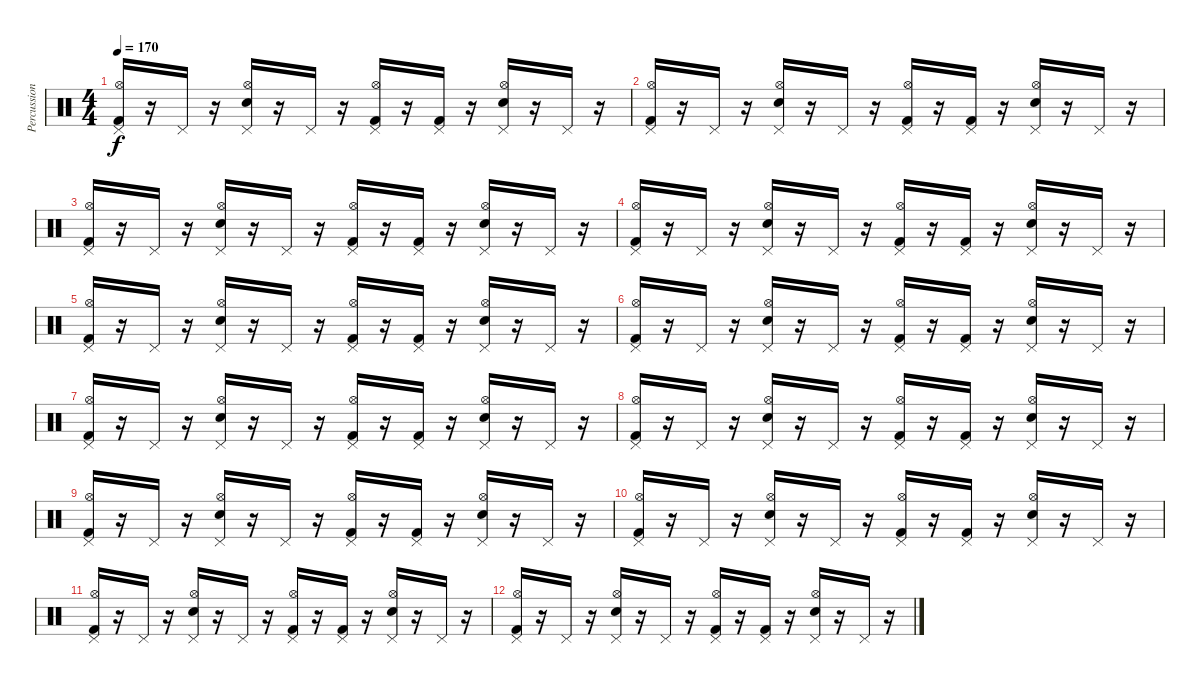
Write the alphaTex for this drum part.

\track ("Percussion" "Percussion") {instrument percussion}
\staff {score}
\articulation defaults
\ts (4 4)
\tempo 170
\clef neutral
\ks c
("Pedal Hi-Hat (hit)" "Hi-Hat (open)" "Kick (hit) 2").16{dy f} r.16 "Pedal Hi-Hat (hit)".16 r.16 ("Pedal Hi-Hat (hit)" "Hi-Hat (open)" "Snare (hit) 2").16 r.16 "Pedal Hi-Hat (hit)".16 r.16 ("Pedal Hi-Hat (hit)" "Hi-Hat (open)" "Kick (hit) 2").16 r.16 ("Pedal Hi-Hat (hit)" "Kick (hit) 2").16 r.16 ("Pedal Hi-Hat (hit)" "Hi-Hat (open)" "Snare (hit) 2").16 r.16 "Pedal Hi-Hat (hit)".16 r.16 |
("Pedal Hi-Hat (hit)" "Hi-Hat (open)" "Kick (hit) 2").16 r.16 "Pedal Hi-Hat (hit)".16 r.16 ("Pedal Hi-Hat (hit)" "Hi-Hat (open)" "Snare (hit) 2").16 r.16 "Pedal Hi-Hat (hit)".16 r.16 ("Pedal Hi-Hat (hit)" "Hi-Hat (open)" "Kick (hit) 2").16 r.16 ("Pedal Hi-Hat (hit)" "Kick (hit) 2").16 r.16 ("Pedal Hi-Hat (hit)" "Hi-Hat (open)" "Snare (hit) 2").16 r.16 "Pedal Hi-Hat (hit)".16 r.16 |
("Pedal Hi-Hat (hit)" "Hi-Hat (open)" "Kick (hit) 2").16 r.16 "Pedal Hi-Hat (hit)".16 r.16 ("Pedal Hi-Hat (hit)" "Hi-Hat (open)" "Snare (hit) 2").16 r.16 "Pedal Hi-Hat (hit)".16 r.16 ("Pedal Hi-Hat (hit)" "Hi-Hat (open)" "Kick (hit) 2").16 r.16 ("Pedal Hi-Hat (hit)" "Kick (hit) 2").16 r.16 ("Pedal Hi-Hat (hit)" "Hi-Hat (open)" "Snare (hit) 2").16 r.16 "Pedal Hi-Hat (hit)".16 r.16 |
("Pedal Hi-Hat (hit)" "Hi-Hat (open)" "Kick (hit) 2").16 r.16 "Pedal Hi-Hat (hit)".16 r.16 ("Pedal Hi-Hat (hit)" "Hi-Hat (open)" "Snare (hit) 2").16 r.16 "Pedal Hi-Hat (hit)".16 r.16 ("Pedal Hi-Hat (hit)" "Hi-Hat (open)" "Kick (hit) 2").16 r.16 ("Pedal Hi-Hat (hit)" "Kick (hit) 2").16 r.16 ("Pedal Hi-Hat (hit)" "Hi-Hat (open)" "Snare (hit) 2").16 r.16 "Pedal Hi-Hat (hit)".16 r.16 |
("Pedal Hi-Hat (hit)" "Hi-Hat (open)" "Kick (hit) 2").16 r.16 "Pedal Hi-Hat (hit)".16 r.16 ("Pedal Hi-Hat (hit)" "Hi-Hat (open)" "Snare (hit) 2").16 r.16 "Pedal Hi-Hat (hit)".16 r.16 ("Pedal Hi-Hat (hit)" "Hi-Hat (open)" "Kick (hit) 2").16 r.16 ("Pedal Hi-Hat (hit)" "Kick (hit) 2").16 r.16 ("Pedal Hi-Hat (hit)" "Hi-Hat (open)" "Snare (hit) 2").16 r.16 "Pedal Hi-Hat (hit)".16 r.16 |
("Pedal Hi-Hat (hit)" "Hi-Hat (open)" "Kick (hit) 2").16 r.16 "Pedal Hi-Hat (hit)".16 r.16 ("Pedal Hi-Hat (hit)" "Hi-Hat (open)" "Snare (hit) 2").16 r.16 "Pedal Hi-Hat (hit)".16 r.16 ("Pedal Hi-Hat (hit)" "Hi-Hat (open)" "Kick (hit) 2").16 r.16 ("Pedal Hi-Hat (hit)" "Kick (hit) 2").16 r.16 ("Pedal Hi-Hat (hit)" "Hi-Hat (open)" "Snare (hit) 2").16 r.16 "Pedal Hi-Hat (hit)".16 r.16 |
("Pedal Hi-Hat (hit)" "Hi-Hat (open)" "Kick (hit) 2").16 r.16 "Pedal Hi-Hat (hit)".16 r.16 ("Pedal Hi-Hat (hit)" "Hi-Hat (open)" "Snare (hit) 2").16 r.16 "Pedal Hi-Hat (hit)".16 r.16 ("Pedal Hi-Hat (hit)" "Hi-Hat (open)" "Kick (hit) 2").16 r.16 ("Pedal Hi-Hat (hit)" "Kick (hit) 2").16 r.16 ("Pedal Hi-Hat (hit)" "Hi-Hat (open)" "Snare (hit) 2").16 r.16 "Pedal Hi-Hat (hit)".16 r.16 |
("Pedal Hi-Hat (hit)" "Hi-Hat (open)" "Kick (hit) 2").16 r.16 "Pedal Hi-Hat (hit)".16 r.16 ("Pedal Hi-Hat (hit)" "Hi-Hat (open)" "Snare (hit) 2").16 r.16 "Pedal Hi-Hat (hit)".16 r.16 ("Pedal Hi-Hat (hit)" "Hi-Hat (open)" "Kick (hit) 2").16 r.16 ("Pedal Hi-Hat (hit)" "Kick (hit) 2").16 r.16 ("Pedal Hi-Hat (hit)" "Hi-Hat (open)" "Snare (hit) 2").16 r.16 "Pedal Hi-Hat (hit)".16 r.16 |
("Pedal Hi-Hat (hit)" "Hi-Hat (open)" "Kick (hit) 2").16 r.16 "Pedal Hi-Hat (hit)".16 r.16 ("Pedal Hi-Hat (hit)" "Hi-Hat (open)" "Snare (hit) 2").16 r.16 "Pedal Hi-Hat (hit)".16 r.16 ("Pedal Hi-Hat (hit)" "Hi-Hat (open)" "Kick (hit) 2").16 r.16 ("Pedal Hi-Hat (hit)" "Kick (hit) 2").16 r.16 ("Pedal Hi-Hat (hit)" "Hi-Hat (open)" "Snare (hit) 2").16 r.16 "Pedal Hi-Hat (hit)".16 r.16 |
("Pedal Hi-Hat (hit)" "Hi-Hat (open)" "Kick (hit) 2").16 r.16 "Pedal Hi-Hat (hit)".16 r.16 ("Pedal Hi-Hat (hit)" "Hi-Hat (open)" "Snare (hit) 2").16 r.16 "Pedal Hi-Hat (hit)".16 r.16 ("Pedal Hi-Hat (hit)" "Hi-Hat (open)" "Kick (hit) 2").16 r.16 ("Pedal Hi-Hat (hit)" "Kick (hit) 2").16 r.16 ("Pedal Hi-Hat (hit)" "Hi-Hat (open)" "Snare (hit) 2").16 r.16 "Pedal Hi-Hat (hit)".16 r.16 |
("Pedal Hi-Hat (hit)" "Hi-Hat (open)" "Kick (hit) 2").16 r.16 "Pedal Hi-Hat (hit)".16 r.16 ("Pedal Hi-Hat (hit)" "Hi-Hat (open)" "Snare (hit) 2").16 r.16 "Pedal Hi-Hat (hit)".16 r.16 ("Pedal Hi-Hat (hit)" "Hi-Hat (open)" "Kick (hit) 2").16 r.16 ("Pedal Hi-Hat (hit)" "Kick (hit) 2").16 r.16 ("Pedal Hi-Hat (hit)" "Hi-Hat (open)" "Snare (hit) 2").16 r.16 "Pedal Hi-Hat (hit)".16 r.16 |
("Pedal Hi-Hat (hit)" "Hi-Hat (open)" "Kick (hit) 2").16 r.16 "Pedal Hi-Hat (hit)".16 r.16 ("Pedal Hi-Hat (hit)" "Hi-Hat (open)" "Snare (hit) 2").16 r.16 "Pedal Hi-Hat (hit)".16 r.16 ("Pedal Hi-Hat (hit)" "Hi-Hat (open)" "Kick (hit) 2").16 r.16 ("Pedal Hi-Hat (hit)" "Kick (hit) 2").16 r.16 ("Pedal Hi-Hat (hit)" "Hi-Hat (open)" "Snare (hit) 2").16 r.16 "Pedal Hi-Hat (hit)".16 r.16
